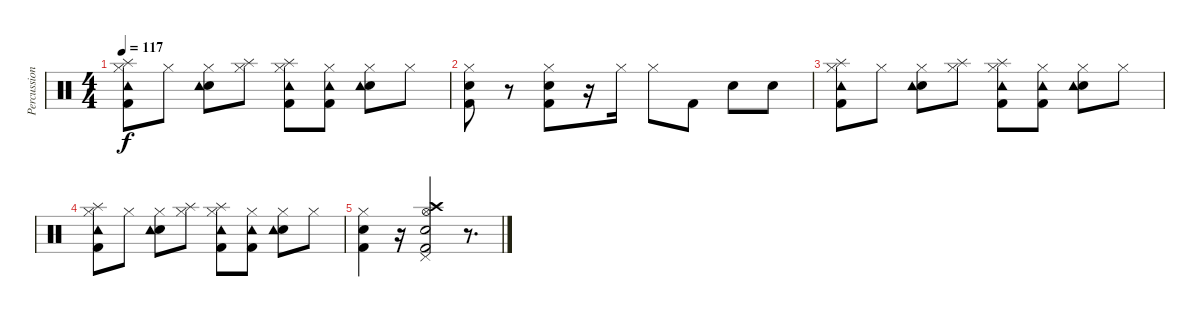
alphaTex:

\track ("Percussion" "Percussion") {instrument percussion}
\staff {score}
\articulation defaults
\ts (4 4)
\tempo 117
\clef neutral
\ks c
("Hi-Hat (closed)" "Kick (hit) 2" "Splash (hit)" "Tambourine (hit)").8{dy f} "Hi-Hat (closed)".8 ("Hi-Hat (closed)" "Electric Snare (hit)" "Tambourine (hit)").8 ("Hi-Hat (closed)" "Splash (hit)").8 ("Hi-Hat (closed)" "Kick (hit) 2" "Splash (hit)" "Tambourine (hit)").8 ("Hi-Hat (closed)" "Kick (hit) 2" "Tambourine (hit)").8 ("Hi-Hat (closed)" "Electric Snare (hit)" "Tambourine (hit)").8 "Hi-Hat (closed)".8 |
("Hi-Hat (closed)" "Electric Snare (hit)" "Kick (hit) 2").8 r.8 ("Hi-Hat (closed)" "Electric Snare (hit)" "Kick (hit) 2").8 r.16 "Hi-Hat (closed)".16 "Hi-Hat (closed)".8 "Kick (hit) 2".8 "Electric Snare (hit)".8 "Electric Snare (hit)".8 |
("Hi-Hat (closed)" "Kick (hit) 2" "Splash (hit)" "Tambourine (hit)").8 "Hi-Hat (closed)".8 ("Hi-Hat (closed)" "Electric Snare (hit)" "Tambourine (hit)").8 ("Hi-Hat (closed)" "Splash (hit)").8 ("Hi-Hat (closed)" "Kick (hit) 2" "Splash (hit)" "Tambourine (hit)").8 ("Hi-Hat (closed)" "Kick (hit) 2" "Tambourine (hit)").8 ("Hi-Hat (closed)" "Electric Snare (hit)" "Tambourine (hit)").8 "Hi-Hat (closed)".8 |
("Hi-Hat (closed)" "Kick (hit) 2" "Splash (hit)" "Tambourine (hit)").8 "Hi-Hat (closed)".8 ("Hi-Hat (closed)" "Electric Snare (hit)" "Tambourine (hit)").8 ("Hi-Hat (closed)" "Splash (hit)").8 ("Hi-Hat (closed)" "Kick (hit) 2" "Splash (hit)" "Tambourine (hit)").8 ("Hi-Hat (closed)" "Kick (hit) 2" "Tambourine (hit)").8 ("Hi-Hat (closed)" "Electric Snare (hit)" "Tambourine (hit)").8 "Hi-Hat (closed)".8 |
("Hi-Hat (closed)" "Kick (hit) 2" "Electric Snare (hit)").4 r.16 ("Hi-Hat (open)" "Crash high (hit)" "Pedal Hi-Hat (hit)" "Kick (hit) 2" "Electric Snare (hit)").2 r.8{d}
